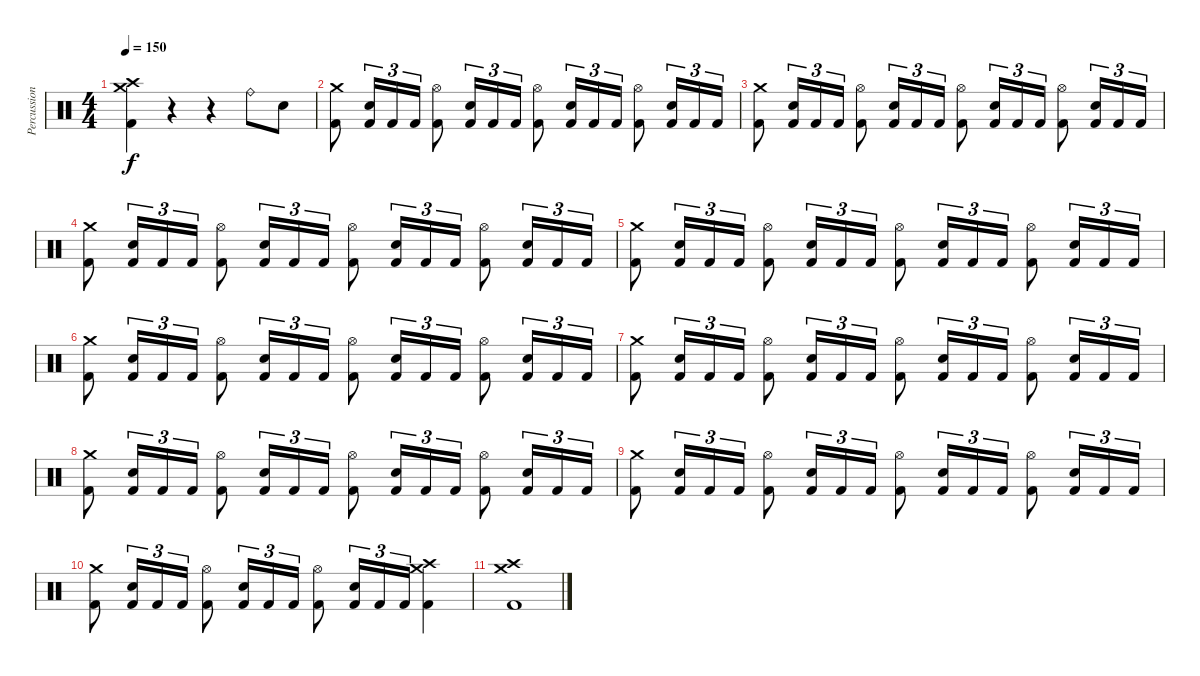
\track ("Percussion" "Percussion") {instrument percussion}
\staff {score}
\articulation defaults
\ts (4 4)
\tempo 150
\clef neutral
\ks c
("Kick (hit) 2" "Crash high (hit)" "Crash medium (hit)").4{dy f} r.4 r.4 "Ride (bell)".8 "Snare (hit) 2".8 |
("Kick (hit) 2" "Crash medium (hit)").8 ("Kick (hit) 2" "Snare (hit) 2").16{tu (3 2)} "Kick (hit) 2".16{tu (3 2)} "Kick (hit) 2".16{tu (3 2)} ("Kick (hit) 2" "Hi-Hat (open)").8 ("Kick (hit) 2" "Snare (hit) 2").16{tu (3 2)} "Kick (hit) 2".16{tu (3 2)} "Kick (hit) 2".16{tu (3 2)} ("Kick (hit) 2" "Hi-Hat (open)").8 ("Kick (hit) 2" "Snare (hit) 2").16{tu (3 2)} "Kick (hit) 2".16{tu (3 2)} "Kick (hit) 2".16{tu (3 2)} ("Kick (hit) 2" "Hi-Hat (open)").8 ("Kick (hit) 2" "Snare (hit) 2").16{tu (3 2)} "Kick (hit) 2".16{tu (3 2)} "Kick (hit) 2".16{tu (3 2)} |
("Kick (hit) 2" "Crash medium (hit)").8 ("Kick (hit) 2" "Snare (hit) 2").16{tu (3 2)} "Kick (hit) 2".16{tu (3 2)} "Kick (hit) 2".16{tu (3 2)} ("Kick (hit) 2" "Hi-Hat (open)").8 ("Kick (hit) 2" "Snare (hit) 2").16{tu (3 2)} "Kick (hit) 2".16{tu (3 2)} "Kick (hit) 2".16{tu (3 2)} ("Kick (hit) 2" "Hi-Hat (open)").8 ("Kick (hit) 2" "Snare (hit) 2").16{tu (3 2)} "Kick (hit) 2".16{tu (3 2)} "Kick (hit) 2".16{tu (3 2)} ("Kick (hit) 2" "Hi-Hat (open)").8 ("Kick (hit) 2" "Snare (hit) 2").16{tu (3 2)} "Kick (hit) 2".16{tu (3 2)} "Kick (hit) 2".16{tu (3 2)} |
("Kick (hit) 2" "Crash medium (hit)").8 ("Kick (hit) 2" "Snare (hit) 2").16{tu (3 2)} "Kick (hit) 2".16{tu (3 2)} "Kick (hit) 2".16{tu (3 2)} ("Kick (hit) 2" "Hi-Hat (open)").8 ("Kick (hit) 2" "Snare (hit) 2").16{tu (3 2)} "Kick (hit) 2".16{tu (3 2)} "Kick (hit) 2".16{tu (3 2)} ("Kick (hit) 2" "Hi-Hat (open)").8 ("Kick (hit) 2" "Snare (hit) 2").16{tu (3 2)} "Kick (hit) 2".16{tu (3 2)} "Kick (hit) 2".16{tu (3 2)} ("Kick (hit) 2" "Hi-Hat (open)").8 ("Kick (hit) 2" "Snare (hit) 2").16{tu (3 2)} "Kick (hit) 2".16{tu (3 2)} "Kick (hit) 2".16{tu (3 2)} |
("Kick (hit) 2" "Crash medium (hit)").8 ("Kick (hit) 2" "Snare (hit) 2").16{tu (3 2)} "Kick (hit) 2".16{tu (3 2)} "Kick (hit) 2".16{tu (3 2)} ("Kick (hit) 2" "Hi-Hat (open)").8 ("Kick (hit) 2" "Snare (hit) 2").16{tu (3 2)} "Kick (hit) 2".16{tu (3 2)} "Kick (hit) 2".16{tu (3 2)} ("Kick (hit) 2" "Hi-Hat (open)").8 ("Kick (hit) 2" "Snare (hit) 2").16{tu (3 2)} "Kick (hit) 2".16{tu (3 2)} "Kick (hit) 2".16{tu (3 2)} ("Kick (hit) 2" "Hi-Hat (open)").8 ("Kick (hit) 2" "Snare (hit) 2").16{tu (3 2)} "Kick (hit) 2".16{tu (3 2)} "Kick (hit) 2".16{tu (3 2)} |
("Kick (hit) 2" "Crash medium (hit)").8 ("Kick (hit) 2" "Snare (hit) 2").16{tu (3 2)} "Kick (hit) 2".16{tu (3 2)} "Kick (hit) 2".16{tu (3 2)} ("Kick (hit) 2" "Hi-Hat (open)").8 ("Kick (hit) 2" "Snare (hit) 2").16{tu (3 2)} "Kick (hit) 2".16{tu (3 2)} "Kick (hit) 2".16{tu (3 2)} ("Kick (hit) 2" "Hi-Hat (open)").8 ("Kick (hit) 2" "Snare (hit) 2").16{tu (3 2)} "Kick (hit) 2".16{tu (3 2)} "Kick (hit) 2".16{tu (3 2)} ("Kick (hit) 2" "Hi-Hat (open)").8 ("Kick (hit) 2" "Snare (hit) 2").16{tu (3 2)} "Kick (hit) 2".16{tu (3 2)} "Kick (hit) 2".16{tu (3 2)} |
("Kick (hit) 2" "Crash medium (hit)").8 ("Kick (hit) 2" "Snare (hit) 2").16{tu (3 2)} "Kick (hit) 2".16{tu (3 2)} "Kick (hit) 2".16{tu (3 2)} ("Kick (hit) 2" "Hi-Hat (open)").8 ("Kick (hit) 2" "Snare (hit) 2").16{tu (3 2)} "Kick (hit) 2".16{tu (3 2)} "Kick (hit) 2".16{tu (3 2)} ("Kick (hit) 2" "Hi-Hat (open)").8 ("Kick (hit) 2" "Snare (hit) 2").16{tu (3 2)} "Kick (hit) 2".16{tu (3 2)} "Kick (hit) 2".16{tu (3 2)} ("Kick (hit) 2" "Hi-Hat (open)").8 ("Kick (hit) 2" "Snare (hit) 2").16{tu (3 2)} "Kick (hit) 2".16{tu (3 2)} "Kick (hit) 2".16{tu (3 2)} |
("Kick (hit) 2" "Crash medium (hit)").8 ("Kick (hit) 2" "Snare (hit) 2").16{tu (3 2)} "Kick (hit) 2".16{tu (3 2)} "Kick (hit) 2".16{tu (3 2)} ("Kick (hit) 2" "Hi-Hat (open)").8 ("Kick (hit) 2" "Snare (hit) 2").16{tu (3 2)} "Kick (hit) 2".16{tu (3 2)} "Kick (hit) 2".16{tu (3 2)} ("Kick (hit) 2" "Hi-Hat (open)").8 ("Kick (hit) 2" "Snare (hit) 2").16{tu (3 2)} "Kick (hit) 2".16{tu (3 2)} "Kick (hit) 2".16{tu (3 2)} ("Kick (hit) 2" "Hi-Hat (open)").8 ("Kick (hit) 2" "Snare (hit) 2").16{tu (3 2)} "Kick (hit) 2".16{tu (3 2)} "Kick (hit) 2".16{tu (3 2)} |
("Kick (hit) 2" "Crash medium (hit)").8 ("Kick (hit) 2" "Snare (hit) 2").16{tu (3 2)} "Kick (hit) 2".16{tu (3 2)} "Kick (hit) 2".16{tu (3 2)} ("Kick (hit) 2" "Hi-Hat (open)").8 ("Kick (hit) 2" "Snare (hit) 2").16{tu (3 2)} "Kick (hit) 2".16{tu (3 2)} "Kick (hit) 2".16{tu (3 2)} ("Kick (hit) 2" "Hi-Hat (open)").8 ("Kick (hit) 2" "Snare (hit) 2").16{tu (3 2)} "Kick (hit) 2".16{tu (3 2)} "Kick (hit) 2".16{tu (3 2)} ("Kick (hit) 2" "Hi-Hat (open)").8 ("Kick (hit) 2" "Snare (hit) 2").16{tu (3 2)} "Kick (hit) 2".16{tu (3 2)} "Kick (hit) 2".16{tu (3 2)} |
("Kick (hit) 2" "Crash medium (hit)").8 ("Kick (hit) 2" "Snare (hit) 2").16{tu (3 2)} "Kick (hit) 2".16{tu (3 2)} "Kick (hit) 2".16{tu (3 2)} ("Kick (hit) 2" "Hi-Hat (open)").8 ("Kick (hit) 2" "Snare (hit) 2").16{tu (3 2)} "Kick (hit) 2".16{tu (3 2)} "Kick (hit) 2".16{tu (3 2)} ("Kick (hit) 2" "Hi-Hat (open)").8 ("Kick (hit) 2" "Snare (hit) 2").16{tu (3 2)} "Kick (hit) 2".16{tu (3 2)} "Kick (hit) 2".16{tu (3 2)} ("Kick (hit) 2" "Crash high (hit)" "Crash medium (hit)").4 |
("Kick (hit) 2" "Crash high (hit)" "Crash medium (hit)").1
